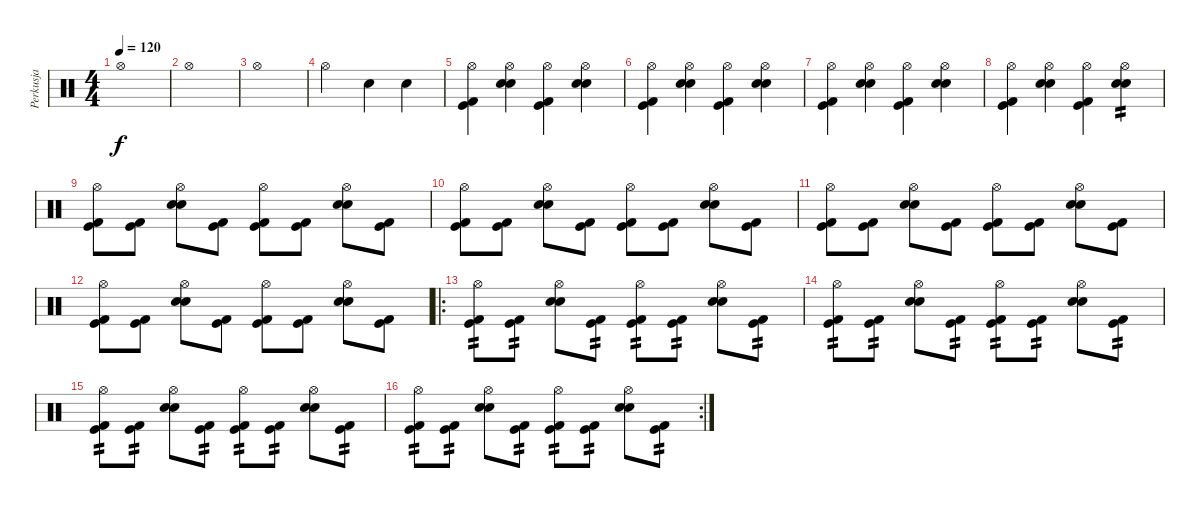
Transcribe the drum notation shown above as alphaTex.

\track ("Perkusja" "Perkusja") {instrument percussion}
\staff {score}
\articulation defaults
\ts (4 4)
\tempo 120
\clef neutral
\ks c "Hi-Hat (open)".1{dy f}
|
"Hi-Hat (open)".1 |
"Hi-Hat (open)".1 |
"Hi-Hat (open)".2 "Snare (hit) 2".4 "Snare (hit) 2".4 |
("Kick (hit) 2" "Kick (hit)" "Hi-Hat (open)").4 ("Snare (hit) 2" "Electric Snare (hit)" "Hi-Hat (open)").4 ("Kick (hit) 2" "Kick (hit)" "Hi-Hat (open)").4 ("Snare (hit) 2" "Electric Snare (hit)" "Hi-Hat (open)").4 |
("Kick (hit) 2" "Kick (hit)" "Hi-Hat (open)").4 ("Snare (hit) 2" "Electric Snare (hit)" "Hi-Hat (open)").4 ("Kick (hit) 2" "Kick (hit)" "Hi-Hat (open)").4 ("Snare (hit) 2" "Electric Snare (hit)" "Hi-Hat (open)").4 |
("Kick (hit) 2" "Kick (hit)" "Hi-Hat (open)").4 ("Snare (hit) 2" "Electric Snare (hit)" "Hi-Hat (open)").4 ("Kick (hit) 2" "Kick (hit)" "Hi-Hat (open)").4 ("Snare (hit) 2" "Electric Snare (hit)" "Hi-Hat (open)").4 |
("Kick (hit) 2" "Kick (hit)" "Hi-Hat (open)").4 ("Snare (hit) 2" "Electric Snare (hit)" "Hi-Hat (open)").4 ("Kick (hit) 2" "Kick (hit)" "Hi-Hat (open)").4 ("Snare (hit) 2" "Electric Snare (hit)" "Hi-Hat (open)").4{tp 2} |
("Kick (hit) 2" "Kick (hit)" "Hi-Hat (open)").8 ("Kick (hit) 2" "Kick (hit)").8 ("Snare (hit) 2" "Electric Snare (hit)" "Hi-Hat (open)").8 ("Kick (hit) 2" "Kick (hit)").8 ("Kick (hit) 2" "Kick (hit)" "Hi-Hat (open)").8 ("Kick (hit) 2" "Kick (hit)").8 ("Snare (hit) 2" "Electric Snare (hit)" "Hi-Hat (open)").8 ("Kick (hit) 2" "Kick (hit)").8 |
("Kick (hit) 2" "Kick (hit)" "Hi-Hat (open)").8 ("Kick (hit) 2" "Kick (hit)").8 ("Snare (hit) 2" "Electric Snare (hit)" "Hi-Hat (open)").8 ("Kick (hit) 2" "Kick (hit)").8 ("Kick (hit) 2" "Kick (hit)" "Hi-Hat (open)").8 ("Kick (hit) 2" "Kick (hit)").8 ("Snare (hit) 2" "Electric Snare (hit)" "Hi-Hat (open)").8 ("Kick (hit) 2" "Kick (hit)").8 |
("Kick (hit) 2" "Kick (hit)" "Hi-Hat (open)").8 ("Kick (hit) 2" "Kick (hit)").8 ("Snare (hit) 2" "Electric Snare (hit)" "Hi-Hat (open)").8 ("Kick (hit) 2" "Kick (hit)").8 ("Kick (hit) 2" "Kick (hit)" "Hi-Hat (open)").8 ("Kick (hit) 2" "Kick (hit)").8 ("Snare (hit) 2" "Electric Snare (hit)" "Hi-Hat (open)").8 ("Kick (hit) 2" "Kick (hit)").8 |
("Kick (hit) 2" "Kick (hit)" "Hi-Hat (open)").8 ("Kick (hit) 2" "Kick (hit)").8 ("Snare (hit) 2" "Electric Snare (hit)" "Hi-Hat (open)").8 ("Kick (hit) 2" "Kick (hit)").8 ("Kick (hit) 2" "Kick (hit)" "Hi-Hat (open)").8 ("Kick (hit) 2" "Kick (hit)").8 ("Snare (hit) 2" "Electric Snare (hit)" "Hi-Hat (open)").8 ("Kick (hit) 2" "Kick (hit)").8 |
\ro
("Kick (hit) 2" "Kick (hit)" "Hi-Hat (open)").8{tp 2} ("Kick (hit) 2" "Kick (hit)").8{tp 2} ("Snare (hit) 2" "Electric Snare (hit)" "Hi-Hat (open)").8 ("Kick (hit) 2" "Kick (hit)").8{tp 2} ("Kick (hit) 2" "Kick (hit)" "Hi-Hat (open)").8{tp 2} ("Kick (hit) 2" "Kick (hit)").8{tp 2} ("Snare (hit) 2" "Electric Snare (hit)" "Hi-Hat (open)").8 ("Kick (hit) 2" "Kick (hit)").8{tp 2} |
("Kick (hit) 2" "Kick (hit)" "Hi-Hat (open)").8{tp 2} ("Kick (hit) 2" "Kick (hit)").8{tp 2} ("Snare (hit) 2" "Electric Snare (hit)" "Hi-Hat (open)").8 ("Kick (hit) 2" "Kick (hit)").8{tp 2} ("Kick (hit) 2" "Kick (hit)" "Hi-Hat (open)").8{tp 2} ("Kick (hit) 2" "Kick (hit)").8{tp 2} ("Snare (hit) 2" "Electric Snare (hit)" "Hi-Hat (open)").8 ("Kick (hit) 2" "Kick (hit)").8{tp 2} |
("Kick (hit) 2" "Kick (hit)" "Hi-Hat (open)").8{tp 2} ("Kick (hit) 2" "Kick (hit)").8{tp 2} ("Snare (hit) 2" "Electric Snare (hit)" "Hi-Hat (open)").8 ("Kick (hit) 2" "Kick (hit)").8{tp 2} ("Kick (hit) 2" "Kick (hit)" "Hi-Hat (open)").8{tp 2} ("Kick (hit) 2" "Kick (hit)").8{tp 2} ("Snare (hit) 2" "Electric Snare (hit)" "Hi-Hat (open)").8 ("Kick (hit) 2" "Kick (hit)").8{tp 2} |
\rc 2
("Kick (hit) 2" "Kick (hit)" "Hi-Hat (open)").8{tp 2} ("Kick (hit) 2" "Kick (hit)").8{tp 2} ("Snare (hit) 2" "Electric Snare (hit)" "Hi-Hat (open)").8 ("Kick (hit) 2" "Kick (hit)").8{tp 2} ("Kick (hit) 2" "Kick (hit)" "Hi-Hat (open)").8{tp 2} ("Kick (hit) 2" "Kick (hit)").8{tp 2} ("Snare (hit) 2" "Electric Snare (hit)" "Hi-Hat (open)").8 ("Kick (hit) 2" "Kick (hit)").8{tp 2}
